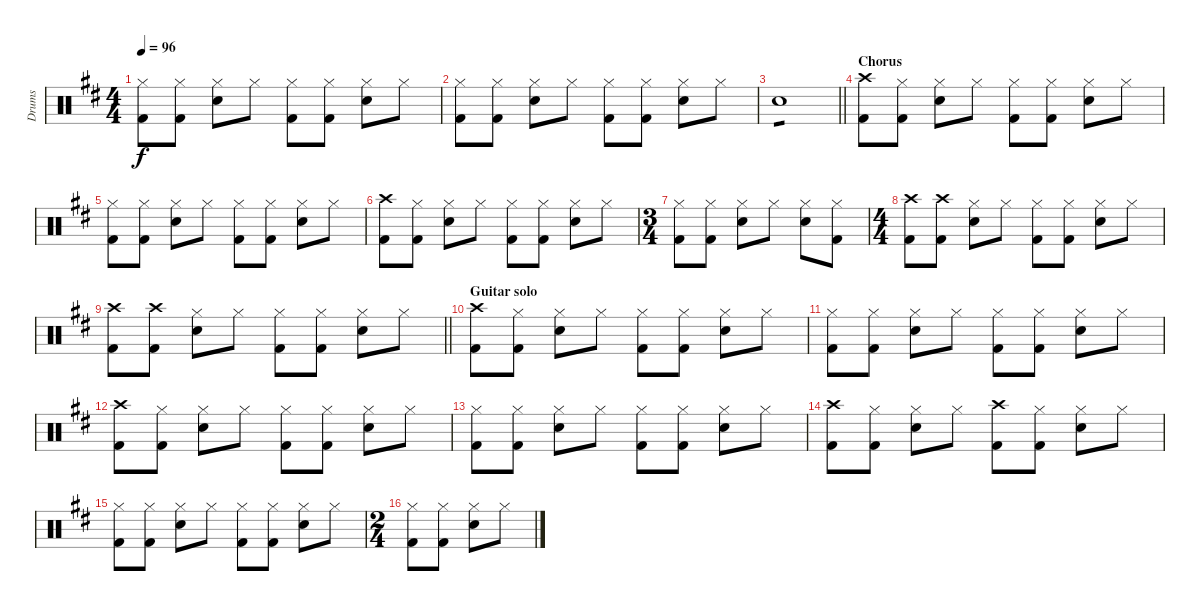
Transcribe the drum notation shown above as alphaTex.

\track ("Drums" "Drums") {instrument percussion}
\staff {score}
\articulation defaults
\ts (4 4)
\tempo 96
\clef neutral
\ks d
("Hi-Hat (closed)" "Kick (hit) 2").8{dy f} ("Hi-Hat (closed)" "Kick (hit) 2").8 ("Hi-Hat (closed)" "Electric Snare (hit)").8 "Hi-Hat (closed)".8 ("Hi-Hat (closed)" "Kick (hit) 2").8 ("Hi-Hat (closed)" "Kick (hit) 2").8 ("Hi-Hat (closed)" "Electric Snare (hit)").8 "Hi-Hat (closed)".8 |
("Hi-Hat (closed)" "Kick (hit) 2").8 ("Hi-Hat (closed)" "Kick (hit) 2").8 ("Hi-Hat (closed)" "Electric Snare (hit)").8 "Hi-Hat (closed)".8 ("Hi-Hat (closed)" "Kick (hit) 2").8 ("Hi-Hat (closed)" "Kick (hit) 2").8 ("Hi-Hat (closed)" "Electric Snare (hit)").8 "Hi-Hat (closed)".8 |
\barLineRight lightlight "Electric Snare (hit)".1{tp 1}
|
\section ("" "Chorus")
("Crash high (hit)" "Kick (hit) 2").8 ("Hi-Hat (closed)" "Kick (hit) 2").8 ("Hi-Hat (closed)" "Electric Snare (hit)").8 "Hi-Hat (closed)".8 ("Hi-Hat (closed)" "Kick (hit) 2").8 ("Hi-Hat (closed)" "Kick (hit) 2").8 ("Hi-Hat (closed)" "Electric Snare (hit)").8 "Hi-Hat (closed)".8 |
("Hi-Hat (closed)" "Kick (hit) 2").8 ("Hi-Hat (closed)" "Kick (hit) 2").8 ("Hi-Hat (closed)" "Electric Snare (hit)").8 "Hi-Hat (closed)".8 ("Hi-Hat (closed)" "Kick (hit) 2").8 ("Hi-Hat (closed)" "Kick (hit) 2").8 ("Hi-Hat (closed)" "Electric Snare (hit)").8 "Hi-Hat (closed)".8 |
("Crash high (hit)" "Kick (hit) 2").8 ("Hi-Hat (closed)" "Kick (hit) 2").8 ("Hi-Hat (closed)" "Electric Snare (hit)").8 "Hi-Hat (closed)".8 ("Hi-Hat (closed)" "Kick (hit) 2").8 ("Hi-Hat (closed)" "Kick (hit) 2").8 ("Hi-Hat (closed)" "Electric Snare (hit)").8 "Hi-Hat (closed)".8 |
\ts (3 4)
("Hi-Hat (closed)" "Kick (hit) 2").8 ("Hi-Hat (closed)" "Kick (hit) 2").8 ("Hi-Hat (closed)" "Electric Snare (hit)").8 "Hi-Hat (closed)".8 ("Hi-Hat (closed)" "Electric Snare (hit)").8 ("Hi-Hat (closed)" "Kick (hit) 2").8 |
\ts (4 4)
("Crash high (hit)" "Kick (hit) 2").8 ("Crash high (hit)" "Kick (hit) 2").8 ("Hi-Hat (closed)" "Electric Snare (hit)").8 "Hi-Hat (closed)".8 ("Hi-Hat (closed)" "Kick (hit) 2").8 ("Hi-Hat (closed)" "Kick (hit) 2").8 ("Hi-Hat (closed)" "Electric Snare (hit)").8 "Hi-Hat (closed)".8 |
\barLineRight lightlight
("Crash high (hit)" "Kick (hit) 2").8 ("Crash high (hit)" "Kick (hit) 2").8 ("Hi-Hat (closed)" "Electric Snare (hit)").8 "Hi-Hat (closed)".8 ("Hi-Hat (closed)" "Kick (hit) 2").8 ("Hi-Hat (closed)" "Kick (hit) 2").8 ("Hi-Hat (closed)" "Electric Snare (hit)").8 "Hi-Hat (closed)".8 |
\section ("" "Guitar solo")
("Crash high (hit)" "Kick (hit) 2").8 ("Hi-Hat (closed)" "Kick (hit) 2").8 ("Hi-Hat (closed)" "Electric Snare (hit)").8 "Hi-Hat (closed)".8 ("Hi-Hat (closed)" "Kick (hit) 2").8 ("Hi-Hat (closed)" "Kick (hit) 2").8 ("Hi-Hat (closed)" "Electric Snare (hit)").8 "Hi-Hat (closed)".8 |
("Hi-Hat (closed)" "Kick (hit) 2").8 ("Hi-Hat (closed)" "Kick (hit) 2").8 ("Hi-Hat (closed)" "Electric Snare (hit)").8 "Hi-Hat (closed)".8 ("Hi-Hat (closed)" "Kick (hit) 2").8 ("Hi-Hat (closed)" "Kick (hit) 2").8 ("Hi-Hat (closed)" "Electric Snare (hit)").8 "Hi-Hat (closed)".8 |
("Crash high (hit)" "Kick (hit) 2").8 ("Hi-Hat (closed)" "Kick (hit) 2").8 ("Hi-Hat (closed)" "Electric Snare (hit)").8 "Hi-Hat (closed)".8 ("Hi-Hat (closed)" "Kick (hit) 2").8 ("Hi-Hat (closed)" "Kick (hit) 2").8 ("Hi-Hat (closed)" "Electric Snare (hit)").8 "Hi-Hat (closed)".8 |
("Hi-Hat (closed)" "Kick (hit) 2").8 ("Hi-Hat (closed)" "Kick (hit) 2").8 ("Hi-Hat (closed)" "Electric Snare (hit)").8 "Hi-Hat (closed)".8 ("Hi-Hat (closed)" "Kick (hit) 2").8 ("Hi-Hat (closed)" "Kick (hit) 2").8 ("Hi-Hat (closed)" "Electric Snare (hit)").8 "Hi-Hat (closed)".8 |
("Crash high (hit)" "Kick (hit) 2").8 ("Hi-Hat (closed)" "Kick (hit) 2").8 ("Hi-Hat (closed)" "Electric Snare (hit)").8 "Hi-Hat (closed)".8 ("Crash high (hit)" "Kick (hit) 2").8 ("Hi-Hat (closed)" "Kick (hit) 2").8 ("Hi-Hat (closed)" "Electric Snare (hit)").8 "Hi-Hat (closed)".8 |
("Hi-Hat (closed)" "Kick (hit) 2").8 ("Hi-Hat (closed)" "Kick (hit) 2").8 ("Hi-Hat (closed)" "Electric Snare (hit)").8 "Hi-Hat (closed)".8 ("Hi-Hat (closed)" "Kick (hit) 2").8 ("Hi-Hat (closed)" "Kick (hit) 2").8 ("Hi-Hat (closed)" "Electric Snare (hit)").8 "Hi-Hat (closed)".8 |
\ts (2 4)
("Hi-Hat (closed)" "Kick (hit) 2").8 ("Hi-Hat (closed)" "Kick (hit) 2").8 ("Hi-Hat (closed)" "Electric Snare (hit)").8 "Hi-Hat (closed)".8
